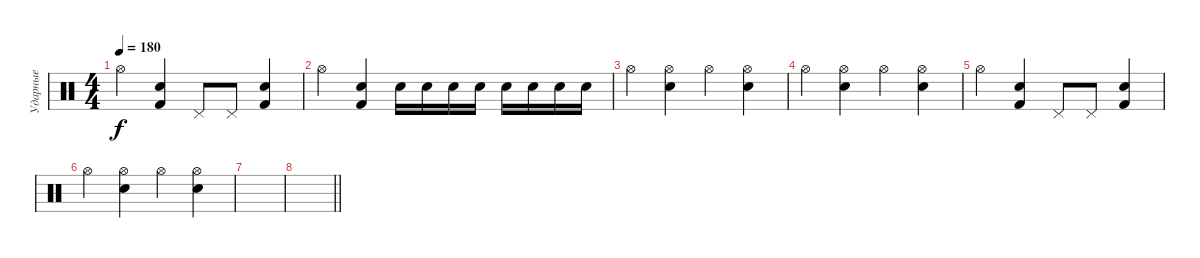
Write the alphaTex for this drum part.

\track ("Ударные" "Ударные") {instrument percussion}
\staff {score}
\articulation defaults
\ts (4 4)
\tempo 180
\clef neutral
\ks c "Hi-Hat (open)".4{dy f}
("Kick (hit) 2" "Electric Snare (hit)").4 "Pedal Hi-Hat (hit)".8 "Pedal Hi-Hat (hit)".8 ("Kick (hit) 2" "Electric Snare (hit)").4 |
"Hi-Hat (open)".4 ("Kick (hit) 2" "Electric Snare (hit)").4 "Electric Snare (hit)".16 "Electric Snare (hit)".16 "Snare (hit) 2".16 "Electric Snare (hit)".16 "Snare (hit) 2".16 "Electric Snare (hit)".16 "Snare (hit) 2".16 "Electric Snare (hit)".16 |
"Hi-Hat (open)".4 ("Electric Snare (hit)" "Hi-Hat (open)").4 "Hi-Hat (open)".4 ("Electric Snare (hit)" "Hi-Hat (open)").4 |
"Hi-Hat (open)".4 ("Electric Snare (hit)" "Hi-Hat (open)").4 "Hi-Hat (open)".4 ("Electric Snare (hit)" "Hi-Hat (open)").4 |
"Hi-Hat (open)".4 ("Kick (hit) 2" "Electric Snare (hit)").4 "Pedal Hi-Hat (hit)".8 "Pedal Hi-Hat (hit)".8 ("Kick (hit) 2" "Electric Snare (hit)").4 |
"Hi-Hat (open)".4 ("Electric Snare (hit)" "Hi-Hat (open)").4 "Hi-Hat (open)".4 ("Electric Snare (hit)" "Hi-Hat (open)").4 |
|
\barLineRight lightlight
